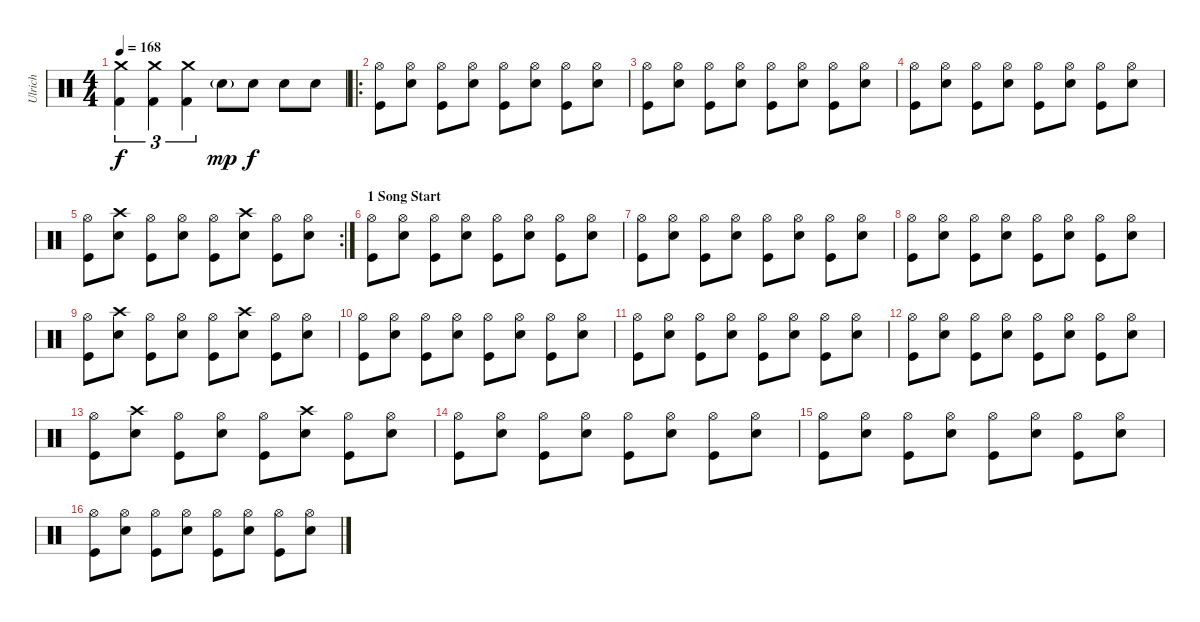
\track ("Ulrich" "Ulrich") {instrument percussion}
\staff {score}
\articulation defaults
\ts (4 4)
\tempo 168
\clef neutral
\ks c
("Crash medium (hit)" "Kick (hit) 2").4{tu (3 2) dy f} ("Crash medium (hit)" "Kick (hit) 2").4{tu (3 2)} ("Crash medium (hit)" "Kick (hit) 2").4{tu (3 2)} "Snare (hit) 2"{g}.8{dy mp} "Snare (hit) 2".8{dy f} "Snare (hit) 2".8 "Snare (hit) 2".8 |
\ro
("Hi-Hat (open)" "Kick (hit)").8 ("Hi-Hat (open)" "Snare (hit) 2").8 ("Hi-Hat (open)" "Kick (hit)").8 ("Hi-Hat (open)" "Snare (hit) 2").8 ("Hi-Hat (open)" "Kick (hit)").8 ("Hi-Hat (open)" "Snare (hit) 2").8 ("Hi-Hat (open)" "Kick (hit)").8 ("Hi-Hat (open)" "Snare (hit) 2").8 |
("Hi-Hat (open)" "Kick (hit)").8 ("Hi-Hat (open)" "Snare (hit) 2").8 ("Hi-Hat (open)" "Kick (hit)").8 ("Hi-Hat (open)" "Snare (hit) 2").8 ("Hi-Hat (open)" "Kick (hit)").8 ("Hi-Hat (open)" "Snare (hit) 2").8 ("Hi-Hat (open)" "Kick (hit)").8 ("Hi-Hat (open)" "Snare (hit) 2").8 |
("Hi-Hat (open)" "Kick (hit)").8 ("Hi-Hat (open)" "Snare (hit) 2").8 ("Hi-Hat (open)" "Kick (hit)").8 ("Hi-Hat (open)" "Snare (hit) 2").8 ("Hi-Hat (open)" "Kick (hit)").8 ("Hi-Hat (open)" "Snare (hit) 2").8 ("Hi-Hat (open)" "Kick (hit)").8 ("Hi-Hat (open)" "Snare (hit) 2").8 |
\rc 2
("Hi-Hat (open)" "Kick (hit)").8 ("Crash high (hit)" "Snare (hit) 2").8 ("Hi-Hat (open)" "Kick (hit)").8 ("Hi-Hat (open)" "Snare (hit) 2").8 ("Hi-Hat (open)" "Kick (hit)").8 ("Crash high (hit)" "Snare (hit) 2").8 ("Hi-Hat (open)" "Kick (hit)").8 ("Hi-Hat (open)" "Snare (hit) 2").8 |
\section ("" "1 Song Start")
("Hi-Hat (open)" "Kick (hit)").8 ("Hi-Hat (open)" "Snare (hit) 2").8 ("Hi-Hat (open)" "Kick (hit)").8 ("Hi-Hat (open)" "Snare (hit) 2").8 ("Hi-Hat (open)" "Kick (hit)").8 ("Hi-Hat (open)" "Snare (hit) 2").8 ("Hi-Hat (open)" "Kick (hit)").8 ("Hi-Hat (open)" "Snare (hit) 2").8 |
("Hi-Hat (open)" "Kick (hit)").8 ("Hi-Hat (open)" "Snare (hit) 2").8 ("Hi-Hat (open)" "Kick (hit)").8 ("Hi-Hat (open)" "Snare (hit) 2").8 ("Hi-Hat (open)" "Kick (hit)").8 ("Hi-Hat (open)" "Snare (hit) 2").8 ("Hi-Hat (open)" "Kick (hit)").8 ("Hi-Hat (open)" "Snare (hit) 2").8 |
("Hi-Hat (open)" "Kick (hit)").8 ("Hi-Hat (open)" "Snare (hit) 2").8 ("Hi-Hat (open)" "Kick (hit)").8 ("Hi-Hat (open)" "Snare (hit) 2").8 ("Hi-Hat (open)" "Kick (hit)").8 ("Hi-Hat (open)" "Snare (hit) 2").8 ("Hi-Hat (open)" "Kick (hit)").8 ("Hi-Hat (open)" "Snare (hit) 2").8 |
("Hi-Hat (open)" "Kick (hit)").8 ("Crash high (hit)" "Snare (hit) 2").8 ("Hi-Hat (open)" "Kick (hit)").8 ("Hi-Hat (open)" "Snare (hit) 2").8 ("Hi-Hat (open)" "Kick (hit)").8 ("Crash high (hit)" "Snare (hit) 2").8 ("Hi-Hat (open)" "Kick (hit)").8 ("Hi-Hat (open)" "Snare (hit) 2").8 |
("Hi-Hat (open)" "Kick (hit)").8 ("Hi-Hat (open)" "Snare (hit) 2").8 ("Hi-Hat (open)" "Kick (hit)").8 ("Hi-Hat (open)" "Snare (hit) 2").8 ("Hi-Hat (open)" "Kick (hit)").8 ("Hi-Hat (open)" "Snare (hit) 2").8 ("Hi-Hat (open)" "Kick (hit)").8 ("Hi-Hat (open)" "Snare (hit) 2").8 |
("Hi-Hat (open)" "Kick (hit)").8 ("Hi-Hat (open)" "Snare (hit) 2").8 ("Hi-Hat (open)" "Kick (hit)").8 ("Hi-Hat (open)" "Snare (hit) 2").8 ("Hi-Hat (open)" "Kick (hit)").8 ("Hi-Hat (open)" "Snare (hit) 2").8 ("Hi-Hat (open)" "Kick (hit)").8 ("Hi-Hat (open)" "Snare (hit) 2").8 |
("Hi-Hat (open)" "Kick (hit)").8 ("Hi-Hat (open)" "Snare (hit) 2").8 ("Hi-Hat (open)" "Kick (hit)").8 ("Hi-Hat (open)" "Snare (hit) 2").8 ("Hi-Hat (open)" "Kick (hit)").8 ("Hi-Hat (open)" "Snare (hit) 2").8 ("Hi-Hat (open)" "Kick (hit)").8 ("Hi-Hat (open)" "Snare (hit) 2").8 |
("Hi-Hat (open)" "Kick (hit)").8 ("Crash high (hit)" "Snare (hit) 2").8 ("Hi-Hat (open)" "Kick (hit)").8 ("Hi-Hat (open)" "Snare (hit) 2").8 ("Hi-Hat (open)" "Kick (hit)").8 ("Crash high (hit)" "Snare (hit) 2").8 ("Hi-Hat (open)" "Kick (hit)").8 ("Hi-Hat (open)" "Snare (hit) 2").8 |
("Hi-Hat (open)" "Kick (hit)").8 ("Hi-Hat (open)" "Snare (hit) 2").8 ("Hi-Hat (open)" "Kick (hit)").8 ("Hi-Hat (open)" "Snare (hit) 2").8 ("Hi-Hat (open)" "Kick (hit)").8 ("Hi-Hat (open)" "Snare (hit) 2").8 ("Hi-Hat (open)" "Kick (hit)").8 ("Hi-Hat (open)" "Snare (hit) 2").8 |
("Hi-Hat (open)" "Kick (hit)").8 ("Hi-Hat (open)" "Snare (hit) 2").8 ("Hi-Hat (open)" "Kick (hit)").8 ("Hi-Hat (open)" "Snare (hit) 2").8 ("Hi-Hat (open)" "Kick (hit)").8 ("Hi-Hat (open)" "Snare (hit) 2").8 ("Hi-Hat (open)" "Kick (hit)").8 ("Hi-Hat (open)" "Snare (hit) 2").8 |
("Hi-Hat (open)" "Kick (hit)").8 ("Hi-Hat (open)" "Snare (hit) 2").8 ("Hi-Hat (open)" "Kick (hit)").8 ("Hi-Hat (open)" "Snare (hit) 2").8 ("Hi-Hat (open)" "Kick (hit)").8 ("Hi-Hat (open)" "Snare (hit) 2").8 ("Hi-Hat (open)" "Kick (hit)").8 ("Hi-Hat (open)" "Snare (hit) 2").8
